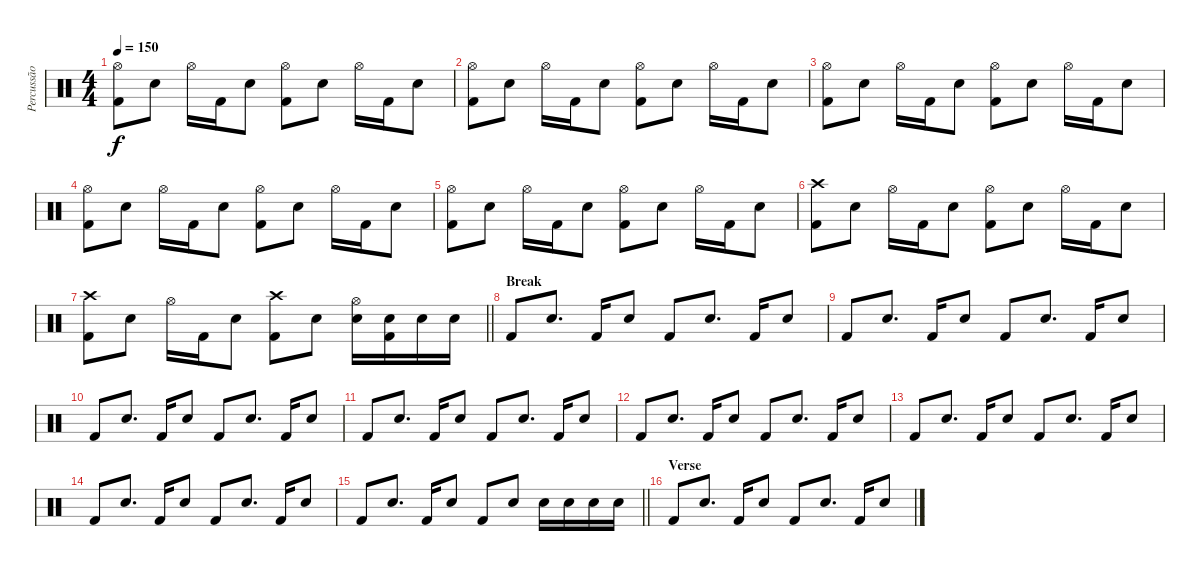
\track ("Percussão" "Percussão") {instrument percussion}
\staff {score}
\articulation defaults
\ts (4 4)
\tempo 150
\clef neutral
\ks c
("Hi-Hat (open)" "Kick (hit) 2").8{dy f} "Snare (hit) 2".8 "Hi-Hat (open)".16 "Kick (hit) 2".16 "Snare (hit) 2".8 ("Hi-Hat (open)" "Kick (hit) 2").8 "Snare (hit) 2".8 "Hi-Hat (open)".16 "Kick (hit) 2".16 "Snare (hit) 2".8 |
("Hi-Hat (open)" "Kick (hit) 2").8 "Snare (hit) 2".8 "Hi-Hat (open)".16 "Kick (hit) 2".16 "Snare (hit) 2".8 ("Hi-Hat (open)" "Kick (hit) 2").8 "Snare (hit) 2".8 "Hi-Hat (open)".16 "Kick (hit) 2".16 "Snare (hit) 2".8 |
("Hi-Hat (open)" "Kick (hit) 2").8 "Snare (hit) 2".8 "Hi-Hat (open)".16 "Kick (hit) 2".16 "Snare (hit) 2".8 ("Hi-Hat (open)" "Kick (hit) 2").8 "Snare (hit) 2".8 "Hi-Hat (open)".16 "Kick (hit) 2".16 "Snare (hit) 2".8 |
("Hi-Hat (open)" "Kick (hit) 2").8 "Snare (hit) 2".8 "Hi-Hat (open)".16 "Kick (hit) 2".16 "Snare (hit) 2".8 ("Hi-Hat (open)" "Kick (hit) 2").8 "Snare (hit) 2".8 "Hi-Hat (open)".16 "Kick (hit) 2".16 "Snare (hit) 2".8 |
("Hi-Hat (open)" "Kick (hit) 2").8 "Snare (hit) 2".8 "Hi-Hat (open)".16 "Kick (hit) 2".16 "Snare (hit) 2".8 ("Hi-Hat (open)" "Kick (hit) 2").8 "Snare (hit) 2".8 "Hi-Hat (open)".16 "Kick (hit) 2".16 "Snare (hit) 2".8 |
("Crash high (hit)" "Kick (hit) 2").8 "Snare (hit) 2".8 "Hi-Hat (open)".16 "Kick (hit) 2".16 "Snare (hit) 2".8 ("Hi-Hat (open)" "Kick (hit) 2").8 "Snare (hit) 2".8 "Hi-Hat (open)".16 "Kick (hit) 2".16 "Snare (hit) 2".8 |
\barLineRight lightlight
("Crash high (hit)" "Kick (hit) 2").8 "Snare (hit) 2".8 "Hi-Hat (open)".16 "Kick (hit) 2".16 "Snare (hit) 2".8 ("Crash high (hit)" "Kick (hit) 2").8 "Snare (hit) 2".8 ("Hi-Hat (open)" "Snare (hit) 2").16 ("Snare (hit) 2" "Kick (hit) 2").16 "Snare (hit) 2".16 "Snare (hit) 2".16 |
\section ("" "Break")
"Kick (hit) 2".8 "Snare (hit) 2".8{d} "Kick (hit) 2".16 "Snare (hit) 2".8 "Kick (hit) 2".8 "Snare (hit) 2".8{d} "Kick (hit) 2".16 "Snare (hit) 2".8 |
"Kick (hit) 2".8 "Snare (hit) 2".8{d} "Kick (hit) 2".16 "Snare (hit) 2".8 "Kick (hit) 2".8 "Snare (hit) 2".8{d} "Kick (hit) 2".16 "Snare (hit) 2".8 |
"Kick (hit) 2".8 "Snare (hit) 2".8{d} "Kick (hit) 2".16 "Snare (hit) 2".8 "Kick (hit) 2".8 "Snare (hit) 2".8{d} "Kick (hit) 2".16 "Snare (hit) 2".8 |
"Kick (hit) 2".8 "Snare (hit) 2".8{d} "Kick (hit) 2".16 "Snare (hit) 2".8 "Kick (hit) 2".8 "Snare (hit) 2".8{d} "Kick (hit) 2".16 "Snare (hit) 2".8 |
"Kick (hit) 2".8 "Snare (hit) 2".8{d} "Kick (hit) 2".16 "Snare (hit) 2".8 "Kick (hit) 2".8 "Snare (hit) 2".8{d} "Kick (hit) 2".16 "Snare (hit) 2".8 |
"Kick (hit) 2".8 "Snare (hit) 2".8{d} "Kick (hit) 2".16 "Snare (hit) 2".8 "Kick (hit) 2".8 "Snare (hit) 2".8{d} "Kick (hit) 2".16 "Snare (hit) 2".8 |
"Kick (hit) 2".8 "Snare (hit) 2".8{d} "Kick (hit) 2".16 "Snare (hit) 2".8 "Kick (hit) 2".8 "Snare (hit) 2".8{d} "Kick (hit) 2".16 "Snare (hit) 2".8 |
\barLineRight lightlight "Kick (hit) 2".8 "Snare (hit) 2".8{d} "Kick (hit) 2".16 "Snare (hit) 2".8 "Kick (hit) 2".8 "Snare (hit) 2".8 "Snare (hit) 2".16 "Snare (hit) 2".16 "Snare (hit) 2".16 "Snare (hit) 2".16
|
\section ("" "Verse")
"Kick (hit) 2".8 "Snare (hit) 2".8{d} "Kick (hit) 2".16 "Snare (hit) 2".8 "Kick (hit) 2".8 "Snare (hit) 2".8{d} "Kick (hit) 2".16 "Snare (hit) 2".8
